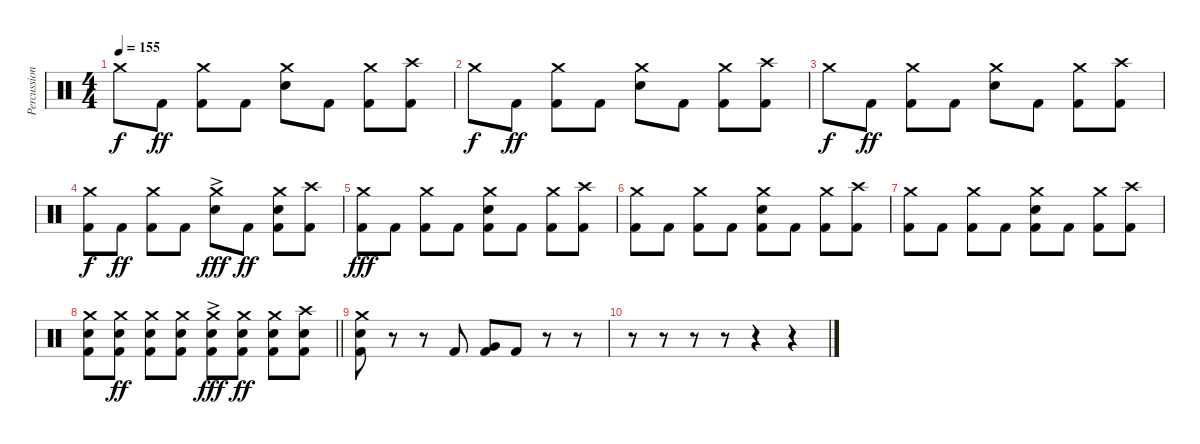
\track ("Percussion (Mike Oliver)" "Percussion") {instrument percussion}
\staff {score}
\articulation defaults
\ts (4 4)
\tempo 155
\clef neutral
\ks c "Crash medium (hit)".8{dy f} "Kick (hit) 2".8{dy ff}
("Crash medium (hit)" "Kick (hit) 2").8 "Kick (hit) 2".8 ("Crash medium (hit)" "Snare (hit) 2").8 "Kick (hit) 2".8 ("Crash medium (hit)" "Kick (hit) 2").8 ("Crash high (hit)" "Kick (hit) 2").8 |
"Crash medium (hit)".8{dy f} "Kick (hit) 2".8{dy ff} ("Crash medium (hit)" "Kick (hit) 2").8 "Kick (hit) 2".8 ("Crash medium (hit)" "Snare (hit) 2").8 "Kick (hit) 2".8 ("Crash medium (hit)" "Kick (hit) 2").8 ("Crash high (hit)" "Kick (hit) 2").8 |
"Crash medium (hit)".8{dy f} "Kick (hit) 2".8{dy ff} ("Crash medium (hit)" "Kick (hit) 2").8 "Kick (hit) 2".8 ("Crash medium (hit)" "Snare (hit) 2").8 "Kick (hit) 2".8 ("Crash medium (hit)" "Kick (hit) 2").8 ("Crash high (hit)" "Kick (hit) 2").8 |
("Crash medium (hit)" "Kick (hit) 2").8{dy f} "Kick (hit) 2".8{dy ff} ("Crash medium (hit)" "Kick (hit) 2").8 "Kick (hit) 2".8 ("Crash medium (hit)" "Snare (hit) 2"{ac}).8{dy fff} "Kick (hit) 2".8{dy ff} ("Crash medium (hit)" "Snare (hit) 2" "Kick (hit) 2").8 ("Crash high (hit)" "Kick (hit) 2").8 |
("Crash medium (hit)" "Kick (hit) 2").8{dy fff} "Kick (hit) 2".8 ("Crash medium (hit)" "Kick (hit) 2").8 "Kick (hit) 2".8 ("Crash medium (hit)" "Snare (hit) 2" "Kick (hit) 2").8 "Kick (hit) 2".8 ("Crash medium (hit)" "Kick (hit) 2").8 ("Crash high (hit)" "Kick (hit) 2").8 |
("Crash medium (hit)" "Kick (hit) 2").8 "Kick (hit) 2".8 ("Crash medium (hit)" "Kick (hit) 2").8 "Kick (hit) 2".8 ("Crash medium (hit)" "Snare (hit) 2" "Kick (hit) 2").8 "Kick (hit) 2".8 ("Crash medium (hit)" "Kick (hit) 2").8 ("Crash high (hit)" "Kick (hit) 2").8 |
("Crash medium (hit)" "Kick (hit) 2").8 "Kick (hit) 2".8 ("Crash medium (hit)" "Kick (hit) 2").8 "Kick (hit) 2".8 ("Crash medium (hit)" "Snare (hit) 2" "Kick (hit) 2").8 "Kick (hit) 2".8 ("Crash medium (hit)" "Kick (hit) 2").8 ("Crash high (hit)" "Kick (hit) 2").8 |
\barLineRight lightlight
("Crash medium (hit)" "Snare (hit) 2" "Kick (hit) 2").8 ("Crash medium (hit)" "Snare (hit) 2" "Kick (hit) 2").8{dy ff} ("Crash medium (hit)" "Snare (hit) 2" "Kick (hit) 2").8 ("Crash medium (hit)" "Snare (hit) 2" "Kick (hit) 2").8 ("Crash medium (hit)" "Snare (hit) 2"{ac} "Kick (hit) 2").8{dy fff} ("Crash medium (hit)" "Snare (hit) 2" "Kick (hit) 2").8{dy ff} ("Crash medium (hit)" "Snare (hit) 2" "Kick (hit) 2").8 ("Crash high (hit)" "Snare (hit) 2" "Kick (hit) 2").8 |
("Crash medium (hit)" "Snare (hit) 2" "Kick (hit) 2").8 r.8 r.8 "Kick (hit) 2".8 ("Very Low Tom (hit)" "Kick (hit) 2").8 "Kick (hit) 2".8 r.8 r.8 |
r.8 r.8 r.8 r.8 r.4 r.4
